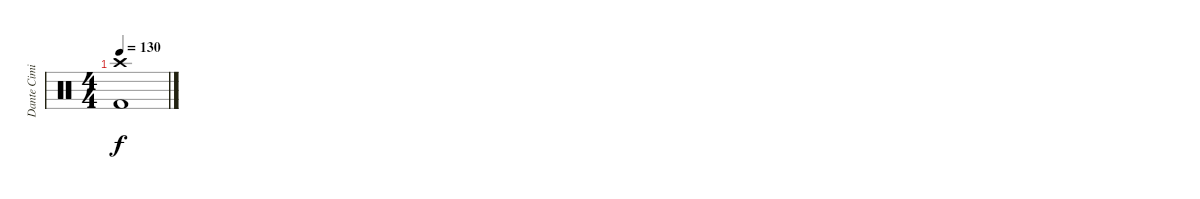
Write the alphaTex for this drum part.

\track ("Dante Cimino" "Dante Cimi") {instrument percussion}
\staff {score}
\articulation defaults
\ts (4 4)
\tempo 130
\clef neutral
\ks c
("Crash high (hit)" "Kick (hit) 2").1{dy f}
